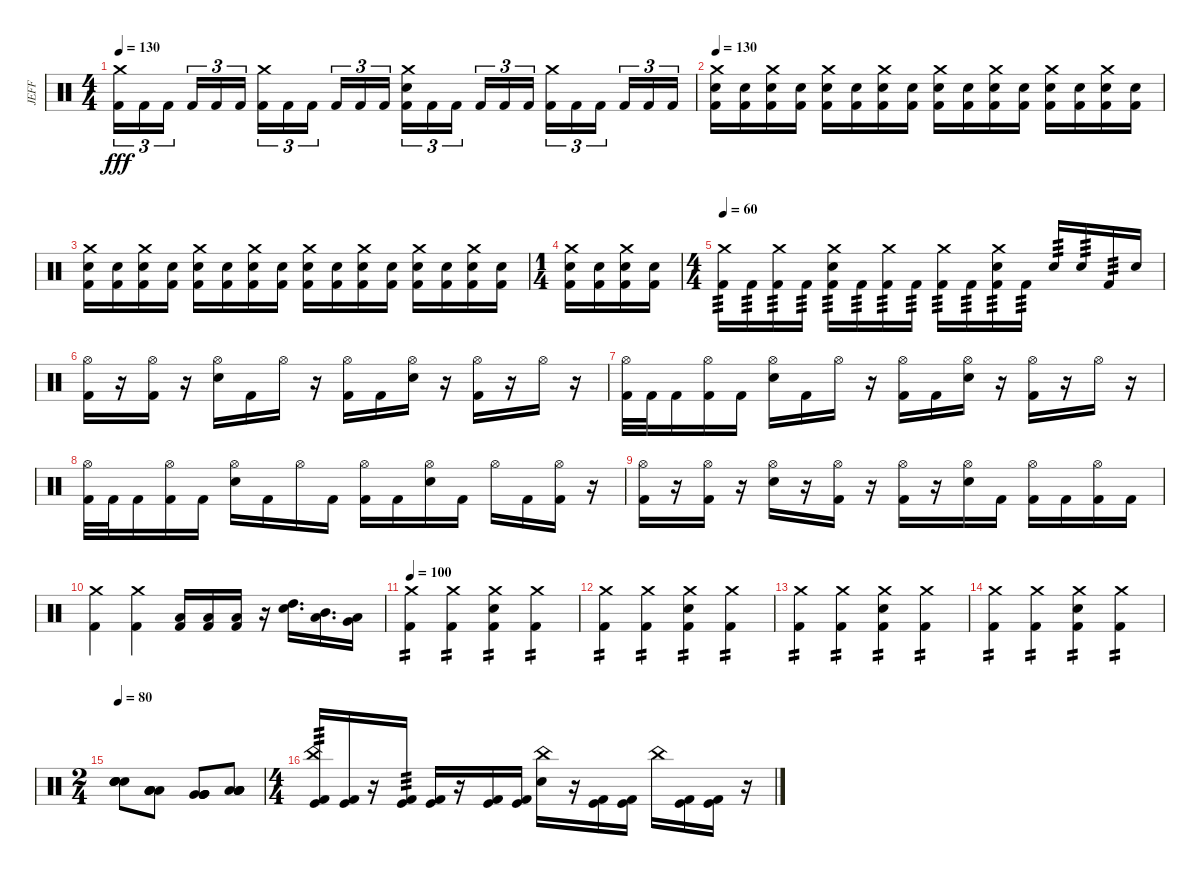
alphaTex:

\track ("JEFF" "JEFF") {instrument percussion}
\staff {score}
\articulation defaults
\ts (4 4)
\tempo 130
\clef neutral
\ks c
("Crash medium (hit)" "Kick (hit) 2").16{tu (3 2) dy fff} "Kick (hit) 2".16{tu (3 2)} "Kick (hit) 2".16{tu (3 2) beam splitsecondary} "Kick (hit) 2".16{tu (3 2)} "Kick (hit) 2".16{tu (3 2)} "Kick (hit) 2".16{tu (3 2)} ("Crash medium (hit)" "Kick (hit) 2").16{tu (3 2)} "Kick (hit) 2".16{tu (3 2)} "Kick (hit) 2".16{tu (3 2) beam splitsecondary} "Kick (hit) 2".16{tu (3 2)} "Kick (hit) 2".16{tu (3 2)} "Kick (hit) 2".16{tu (3 2)} ("Crash medium (hit)" "Electric Snare (hit)" "Kick (hit) 2").16{tu (3 2)} "Kick (hit) 2".16{tu (3 2)} "Kick (hit) 2".16{tu (3 2) beam splitsecondary} "Kick (hit) 2".16{tu (3 2)} "Kick (hit) 2".16{tu (3 2)} "Kick (hit) 2".16{tu (3 2)} ("Crash medium (hit)" "Kick (hit) 2").16{tu (3 2)} "Kick (hit) 2".16{tu (3 2)} "Kick (hit) 2".16{tu (3 2) beam splitsecondary} "Kick (hit) 2".16{tu (3 2)} "Kick (hit) 2".16{tu (3 2)} "Kick (hit) 2".16{tu (3 2)} |
\tempo 130
("Crash medium (hit)" "Electric Snare (hit)" "Kick (hit) 2").16 ("Electric Snare (hit)" "Kick (hit) 2").16 ("Crash medium (hit)" "Electric Snare (hit)" "Kick (hit) 2").16 ("Electric Snare (hit)" "Kick (hit) 2").16 ("Crash medium (hit)" "Electric Snare (hit)" "Kick (hit) 2").16 ("Electric Snare (hit)" "Kick (hit) 2").16 ("Crash medium (hit)" "Electric Snare (hit)" "Kick (hit) 2").16 ("Electric Snare (hit)" "Kick (hit) 2").16 ("Crash medium (hit)" "Electric Snare (hit)" "Kick (hit) 2").16 ("Electric Snare (hit)" "Kick (hit) 2").16 ("Crash medium (hit)" "Electric Snare (hit)" "Kick (hit) 2").16 ("Electric Snare (hit)" "Kick (hit) 2").16 ("Crash medium (hit)" "Electric Snare (hit)" "Kick (hit) 2").16 ("Electric Snare (hit)" "Kick (hit) 2").16 ("Crash medium (hit)" "Electric Snare (hit)" "Kick (hit) 2").16 ("Electric Snare (hit)" "Kick (hit) 2").16 |
("Crash medium (hit)" "Electric Snare (hit)" "Kick (hit) 2").16 ("Electric Snare (hit)" "Kick (hit) 2").16 ("Crash medium (hit)" "Electric Snare (hit)" "Kick (hit) 2").16 ("Electric Snare (hit)" "Kick (hit) 2").16 ("Crash medium (hit)" "Electric Snare (hit)" "Kick (hit) 2").16 ("Electric Snare (hit)" "Kick (hit) 2").16 ("Crash medium (hit)" "Electric Snare (hit)" "Kick (hit) 2").16 ("Electric Snare (hit)" "Kick (hit) 2").16 ("Crash medium (hit)" "Electric Snare (hit)" "Kick (hit) 2").16 ("Electric Snare (hit)" "Kick (hit) 2").16 ("Crash medium (hit)" "Electric Snare (hit)" "Kick (hit) 2").16 ("Electric Snare (hit)" "Kick (hit) 2").16 ("Crash medium (hit)" "Electric Snare (hit)" "Kick (hit) 2").16 ("Electric Snare (hit)" "Kick (hit) 2").16 ("Crash medium (hit)" "Electric Snare (hit)" "Kick (hit) 2").16 ("Electric Snare (hit)" "Kick (hit) 2").16 |
\ts (1 4)
("Crash medium (hit)" "Electric Snare (hit)" "Kick (hit) 2").16 ("Electric Snare (hit)" "Kick (hit) 2").16 ("Crash medium (hit)" "Electric Snare (hit)" "Kick (hit) 2").16 ("Electric Snare (hit)" "Kick (hit) 2").16 |
\ts (4 4)
\tempo 60
("Crash medium (hit)" "Kick (hit) 2").16{tp 3} "Kick (hit) 2".16{tp 3} ("Crash medium (hit)" "Kick (hit) 2").16{tp 3} "Kick (hit) 2".16{tp 3} ("Crash medium (hit)" "Electric Snare (hit)" "Kick (hit) 2").16{tp 3} "Kick (hit) 2".16{tp 3} ("Crash medium (hit)" "Kick (hit) 2").16{tp 3} "Kick (hit) 2".16{tp 3} ("Crash medium (hit)" "Kick (hit) 2").16{tp 3} "Kick (hit) 2".16{tp 3} ("Crash medium (hit)" "Electric Snare (hit)" "Kick (hit) 2").16{tp 3} "Kick (hit) 2".16{tp 3} "Electric Snare (hit)".16{tp 3} "Electric Snare (hit)".16{tp 3} "Kick (hit) 2".16{tp 3} "Electric Snare (hit)".16 |
("Hi-Hat (open)" "Kick (hit) 2").16 r.16 ("Hi-Hat (open)" "Kick (hit) 2").16 r.16 ("Hi-Hat (open)" "Electric Snare (hit)").16 "Kick (hit) 2".16 "Hi-Hat (open)".16 r.16 ("Hi-Hat (open)" "Kick (hit) 2").16 "Kick (hit) 2".16 ("Hi-Hat (open)" "Electric Snare (hit)").16 r.16 ("Hi-Hat (open)" "Kick (hit) 2").16 r.16 "Hi-Hat (open)".16 r.16 |
("Hi-Hat (open)" "Kick (hit) 2").32 "Kick (hit) 2".32 "Kick (hit) 2".16 ("Hi-Hat (open)" "Kick (hit) 2").16 "Kick (hit) 2".16 ("Hi-Hat (open)" "Electric Snare (hit)").16 "Kick (hit) 2".16 "Hi-Hat (open)".16 r.16 ("Hi-Hat (open)" "Kick (hit) 2").16 "Kick (hit) 2".16 ("Hi-Hat (open)" "Electric Snare (hit)").16 r.16 ("Hi-Hat (open)" "Kick (hit) 2").16 r.16 "Hi-Hat (open)".16 r.16 |
("Hi-Hat (open)" "Kick (hit) 2").32 "Kick (hit) 2".32 "Kick (hit) 2".16 ("Hi-Hat (open)" "Kick (hit) 2").16 "Kick (hit) 2".16 ("Hi-Hat (open)" "Electric Snare (hit)").16 "Kick (hit) 2".16 "Hi-Hat (open)".16 "Kick (hit) 2".16 ("Hi-Hat (open)" "Kick (hit) 2").16 "Kick (hit) 2".16 ("Hi-Hat (open)" "Electric Snare (hit)").16 "Kick (hit) 2".16 "Hi-Hat (open)".16 "Kick (hit) 2".16 ("Hi-Hat (open)" "Kick (hit) 2").16 r.16 |
("Hi-Hat (open)" "Kick (hit) 2").16 r.16 ("Hi-Hat (open)" "Kick (hit) 2").16 r.16 ("Hi-Hat (open)" "Electric Snare (hit)").16 r.16 ("Hi-Hat (open)" "Kick (hit) 2").16 r.16 ("Hi-Hat (open)" "Kick (hit) 2").16 r.16 ("Hi-Hat (open)" "Electric Snare (hit)").16 "Kick (hit) 2".16 ("Hi-Hat (open)" "Kick (hit) 2").16 "Kick (hit) 2".16 ("Hi-Hat (open)" "Kick (hit) 2").16 "Kick (hit) 2".16 |
("Crash medium (hit)" "Kick (hit) 2").4 ("Crash medium (hit)" "Kick (hit) 2").4 ("Low Floor Tom (hit)" "Kick (hit) 2").16 ("Low Floor Tom (hit)" "Kick (hit) 2").16 ("Low Floor Tom (hit)" "Kick (hit) 2").16 r.16 ("High Tom (hit)" "Electric Snare (hit)").16{d} ("Low Tom (hit)" "Mid Tom (hit)").16{d} ("Very Low Tom (hit)" "Low Floor Tom (hit)").16 |
\tempo 100
("Crash medium (hit)" "Kick (hit) 2").4{tp 2} ("Crash medium (hit)" "Kick (hit) 2").4{tp 2} ("Crash medium (hit)" "Electric Snare (hit)" "Kick (hit) 2").4{tp 2} ("Crash medium (hit)" "Kick (hit) 2").4{tp 2} |
("Crash medium (hit)" "Kick (hit) 2").4{tp 2} ("Crash medium (hit)" "Kick (hit) 2").4{tp 2} ("Crash medium (hit)" "Electric Snare (hit)" "Kick (hit) 2").4{tp 2} ("Crash medium (hit)" "Kick (hit) 2").4{tp 2} |
("Crash medium (hit)" "Kick (hit) 2").4{tp 2} ("Crash medium (hit)" "Kick (hit) 2").4{tp 2} ("Crash medium (hit)" "Electric Snare (hit)" "Kick (hit) 2").4{tp 2} ("Crash medium (hit)" "Kick (hit) 2").4{tp 2} |
("Crash medium (hit)" "Kick (hit) 2").4{tp 2} ("Crash medium (hit)" "Kick (hit) 2").4{tp 2} ("Crash medium (hit)" "Electric Snare (hit)" "Kick (hit) 2").4{tp 2} ("Crash medium (hit)" "Kick (hit) 2").4{tp 2} |
\ts (2 4)
\tempo 80
("Electric Snare (hit)" "Electric Snare (hit)" "Electric Snare (hit)" "Electric Snare (hit)").8 ("Low Tom (hit)" "Low Tom (hit)" "Low Tom (hit)" "Low Tom (hit)").8 ("Very Low Tom (hit)" "Very Low Tom (hit)" "Very Low Tom (hit)" "Very Low Tom (hit)").8 ("Low Floor Tom (hit)" "Low Floor Tom (hit)" "Low Floor Tom (hit)" "Low Floor Tom (hit)").8 |
\ts (4 4)
("China (hit)" "Kick (hit) 2" "Kick (hit)").16{tp 3} ("Kick (hit) 2" "Kick (hit)").16 r.16 ("Kick (hit)" "Kick (hit) 2").16{tp 3} ("Kick (hit)" "Kick (hit) 2").16 r.16 ("Kick (hit)" "Kick (hit) 2").16 ("Kick (hit)" "Kick (hit) 2").16 ("China (hit)" "Electric Snare (hit)").16 r.16 ("Kick (hit)" "Kick (hit) 2").16 ("Kick (hit) 2" "Kick (hit)").16 "China (hit)".16 ("Kick (hit) 2" "Kick (hit)").16 ("Kick (hit)" "Kick (hit) 2").16 r.16
